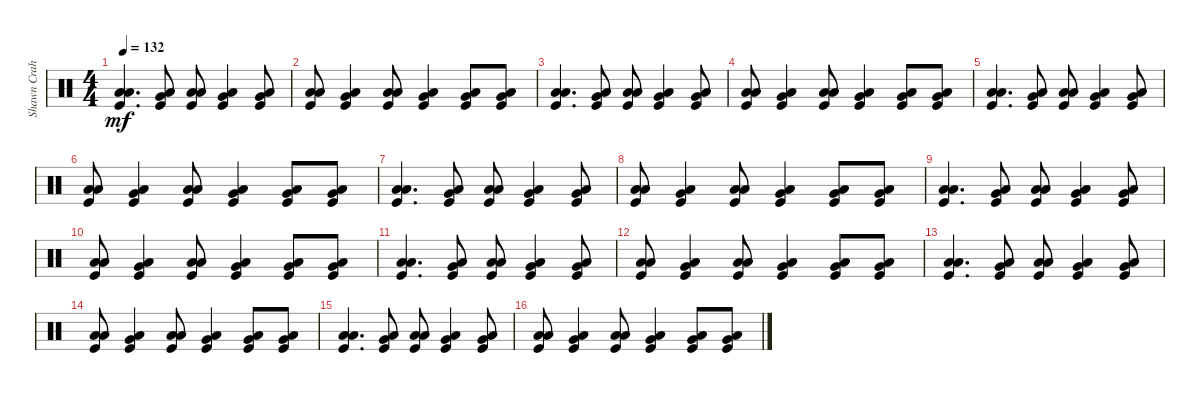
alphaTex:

\track ("Shawn Crahan" "Shawn Crah") {instrument percussion}
\staff {score}
\articulation defaults
\ts (4 4)
\tempo 132
\clef neutral
\ks c
("Low Floor Tom (hit)" "Kick (hit)" "Low Tom (hit)").4{d dy mf} ("Low Floor Tom (hit)" "Kick (hit)" "Very Low Tom (hit)").8 ("Low Floor Tom (hit)" "Kick (hit)" "Low Tom (hit)").8 ("Low Floor Tom (hit)" "Kick (hit)" "Very Low Tom (hit)").4 ("Low Floor Tom (hit)" "Kick (hit)" "Very Low Tom (hit)").8 |
("Low Floor Tom (hit)" "Kick (hit)" "Low Tom (hit)").8 ("Low Floor Tom (hit)" "Kick (hit)" "Very Low Tom (hit)").4 ("Low Floor Tom (hit)" "Kick (hit)" "Low Tom (hit)").8 ("Low Floor Tom (hit)" "Kick (hit)" "Very Low Tom (hit)").4 ("Low Floor Tom (hit)" "Kick (hit)" "Very Low Tom (hit)").8 ("Low Floor Tom (hit)" "Kick (hit)" "Very Low Tom (hit)").8 |
("Low Floor Tom (hit)" "Kick (hit)" "Low Tom (hit)").4{d} ("Low Floor Tom (hit)" "Kick (hit)" "Very Low Tom (hit)").8 ("Low Floor Tom (hit)" "Kick (hit)" "Low Tom (hit)").8 ("Low Floor Tom (hit)" "Kick (hit)" "Very Low Tom (hit)").4 ("Low Floor Tom (hit)" "Kick (hit)" "Very Low Tom (hit)").8 |
("Low Floor Tom (hit)" "Kick (hit)" "Low Tom (hit)").8 ("Low Floor Tom (hit)" "Kick (hit)" "Very Low Tom (hit)").4 ("Low Floor Tom (hit)" "Kick (hit)" "Low Tom (hit)").8 ("Low Floor Tom (hit)" "Kick (hit)" "Very Low Tom (hit)").4 ("Low Floor Tom (hit)" "Kick (hit)" "Very Low Tom (hit)").8 ("Low Floor Tom (hit)" "Kick (hit)" "Very Low Tom (hit)").8 |
("Low Floor Tom (hit)" "Kick (hit)" "Low Tom (hit)").4{d} ("Low Floor Tom (hit)" "Kick (hit)" "Very Low Tom (hit)").8 ("Low Floor Tom (hit)" "Kick (hit)" "Low Tom (hit)").8 ("Low Floor Tom (hit)" "Kick (hit)" "Very Low Tom (hit)").4 ("Low Floor Tom (hit)" "Kick (hit)" "Very Low Tom (hit)").8 |
("Low Floor Tom (hit)" "Kick (hit)" "Low Tom (hit)").8 ("Low Floor Tom (hit)" "Kick (hit)" "Very Low Tom (hit)").4 ("Low Floor Tom (hit)" "Kick (hit)" "Low Tom (hit)").8 ("Low Floor Tom (hit)" "Kick (hit)" "Very Low Tom (hit)").4 ("Low Floor Tom (hit)" "Kick (hit)" "Very Low Tom (hit)").8 ("Low Floor Tom (hit)" "Kick (hit)" "Very Low Tom (hit)").8 |
("Low Floor Tom (hit)" "Kick (hit)" "Low Tom (hit)").4{d} ("Low Floor Tom (hit)" "Kick (hit)" "Very Low Tom (hit)").8 ("Low Floor Tom (hit)" "Kick (hit)" "Low Tom (hit)").8 ("Low Floor Tom (hit)" "Kick (hit)" "Very Low Tom (hit)").4 ("Low Floor Tom (hit)" "Kick (hit)" "Very Low Tom (hit)").8 |
("Low Floor Tom (hit)" "Kick (hit)" "Low Tom (hit)").8 ("Low Floor Tom (hit)" "Kick (hit)" "Very Low Tom (hit)").4 ("Low Floor Tom (hit)" "Kick (hit)" "Low Tom (hit)").8 ("Low Floor Tom (hit)" "Kick (hit)" "Very Low Tom (hit)").4 ("Low Floor Tom (hit)" "Kick (hit)" "Very Low Tom (hit)").8 ("Low Floor Tom (hit)" "Kick (hit)" "Very Low Tom (hit)").8 |
("Low Floor Tom (hit)" "Kick (hit)" "Low Tom (hit)").4{d} ("Low Floor Tom (hit)" "Kick (hit)" "Very Low Tom (hit)").8 ("Low Floor Tom (hit)" "Kick (hit)" "Low Tom (hit)").8 ("Low Floor Tom (hit)" "Kick (hit)" "Very Low Tom (hit)").4 ("Low Floor Tom (hit)" "Kick (hit)" "Very Low Tom (hit)").8 |
("Low Floor Tom (hit)" "Kick (hit)" "Low Tom (hit)").8 ("Low Floor Tom (hit)" "Kick (hit)" "Very Low Tom (hit)").4 ("Low Floor Tom (hit)" "Kick (hit)" "Low Tom (hit)").8 ("Low Floor Tom (hit)" "Kick (hit)" "Very Low Tom (hit)").4 ("Low Floor Tom (hit)" "Kick (hit)" "Very Low Tom (hit)").8 ("Low Floor Tom (hit)" "Kick (hit)" "Very Low Tom (hit)").8 |
("Low Floor Tom (hit)" "Kick (hit)" "Low Tom (hit)").4{d} ("Low Floor Tom (hit)" "Kick (hit)" "Very Low Tom (hit)").8 ("Low Floor Tom (hit)" "Kick (hit)" "Low Tom (hit)").8 ("Low Floor Tom (hit)" "Kick (hit)" "Very Low Tom (hit)").4 ("Low Floor Tom (hit)" "Kick (hit)" "Very Low Tom (hit)").8 |
("Low Floor Tom (hit)" "Kick (hit)" "Low Tom (hit)").8 ("Low Floor Tom (hit)" "Kick (hit)" "Very Low Tom (hit)").4 ("Low Floor Tom (hit)" "Kick (hit)" "Low Tom (hit)").8 ("Low Floor Tom (hit)" "Kick (hit)" "Very Low Tom (hit)").4 ("Low Floor Tom (hit)" "Kick (hit)" "Very Low Tom (hit)").8 ("Low Floor Tom (hit)" "Kick (hit)" "Very Low Tom (hit)").8 |
("Low Floor Tom (hit)" "Kick (hit)" "Low Tom (hit)").4{d} ("Low Floor Tom (hit)" "Kick (hit)" "Very Low Tom (hit)").8 ("Low Floor Tom (hit)" "Kick (hit)" "Low Tom (hit)").8 ("Low Floor Tom (hit)" "Kick (hit)" "Very Low Tom (hit)").4 ("Low Floor Tom (hit)" "Kick (hit)" "Very Low Tom (hit)").8 |
("Low Floor Tom (hit)" "Kick (hit)" "Low Tom (hit)").8 ("Low Floor Tom (hit)" "Kick (hit)" "Very Low Tom (hit)").4 ("Low Floor Tom (hit)" "Kick (hit)" "Low Tom (hit)").8 ("Low Floor Tom (hit)" "Kick (hit)" "Very Low Tom (hit)").4 ("Low Floor Tom (hit)" "Kick (hit)" "Very Low Tom (hit)").8 ("Low Floor Tom (hit)" "Kick (hit)" "Very Low Tom (hit)").8 |
("Low Floor Tom (hit)" "Kick (hit)" "Low Tom (hit)").4{d} ("Low Floor Tom (hit)" "Kick (hit)" "Very Low Tom (hit)").8 ("Low Floor Tom (hit)" "Kick (hit)" "Low Tom (hit)").8 ("Low Floor Tom (hit)" "Kick (hit)" "Very Low Tom (hit)").4 ("Low Floor Tom (hit)" "Kick (hit)" "Very Low Tom (hit)").8 |
("Low Floor Tom (hit)" "Kick (hit)" "Low Tom (hit)").8 ("Low Floor Tom (hit)" "Kick (hit)" "Very Low Tom (hit)").4 ("Low Floor Tom (hit)" "Kick (hit)" "Low Tom (hit)").8 ("Low Floor Tom (hit)" "Kick (hit)" "Very Low Tom (hit)").4 ("Low Floor Tom (hit)" "Kick (hit)" "Very Low Tom (hit)").8 ("Low Floor Tom (hit)" "Kick (hit)" "Very Low Tom (hit)").8
